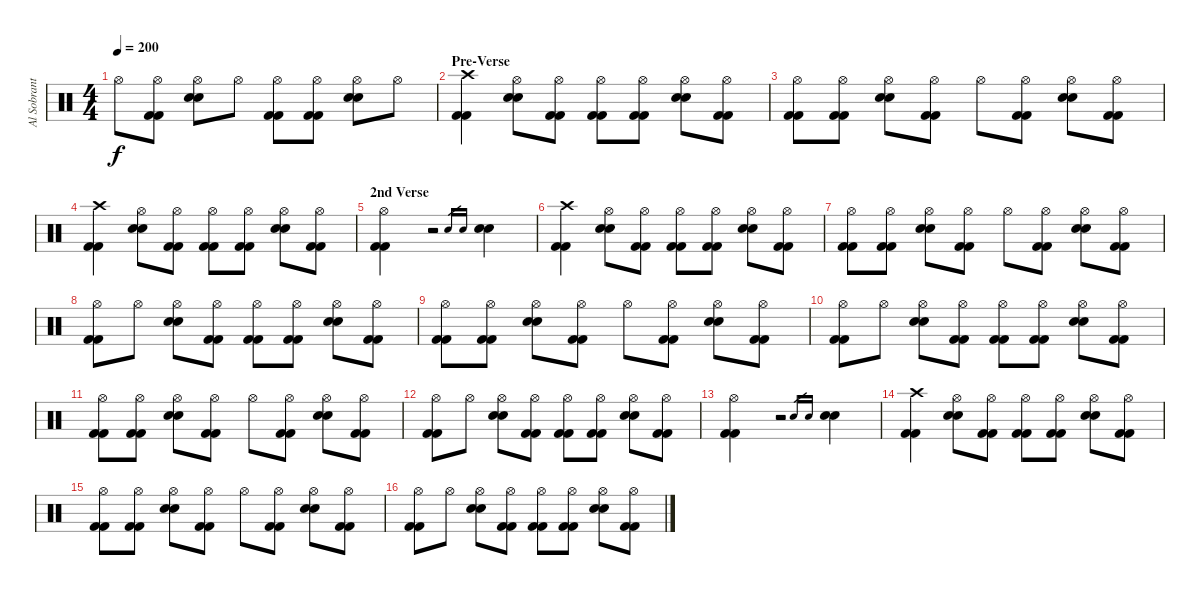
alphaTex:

\track ("Al Sobrante (Drums)" "Al Sobrant") {instrument percussion}
\staff {score}
\articulation defaults
\ts (4 4)
\tempo 200
\clef neutral
\ks c "Hi-Hat (open)".8{dy f}
("Kick (hit) 2" "Kick (hit) 2" "Hi-Hat (open)").8 ("Electric Snare (hit)" "Electric Snare (hit)" "Hi-Hat (open)").8 "Hi-Hat (open)".8 ("Kick (hit) 2" "Kick (hit) 2" "Hi-Hat (open)").8 ("Kick (hit) 2" "Kick (hit) 2" "Hi-Hat (open)").8 ("Electric Snare (hit)" "Electric Snare (hit)" "Hi-Hat (open)").8 "Hi-Hat (open)".8 |
\section ("" "Pre-Verse")
("Kick (hit) 2" "Kick (hit) 2" "Crash high (hit)").4 ("Electric Snare (hit)" "Electric Snare (hit)" "Hi-Hat (open)").8 ("Kick (hit) 2" "Kick (hit) 2" "Hi-Hat (open)").8 ("Kick (hit) 2" "Kick (hit) 2" "Hi-Hat (open)").8 ("Kick (hit) 2" "Kick (hit) 2" "Hi-Hat (open)").8 ("Electric Snare (hit)" "Electric Snare (hit)" "Hi-Hat (open)").8 ("Kick (hit) 2" "Kick (hit) 2" "Hi-Hat (open)").8 |
("Kick (hit) 2" "Kick (hit) 2" "Hi-Hat (open)").8 ("Kick (hit) 2" "Kick (hit) 2" "Hi-Hat (open)").8 ("Electric Snare (hit)" "Electric Snare (hit)" "Hi-Hat (open)").8 ("Kick (hit) 2" "Kick (hit) 2" "Hi-Hat (open)").8 "Hi-Hat (open)".8 ("Kick (hit) 2" "Kick (hit) 2" "Hi-Hat (open)").8 ("Electric Snare (hit)" "Electric Snare (hit)" "Hi-Hat (open)").8 ("Kick (hit) 2" "Kick (hit) 2" "Hi-Hat (open)").8 |
("Kick (hit) 2" "Kick (hit) 2" "Crash high (hit)").4 ("Electric Snare (hit)" "Electric Snare (hit)" "Hi-Hat (open)").8 ("Kick (hit) 2" "Kick (hit) 2" "Hi-Hat (open)").8 ("Kick (hit) 2" "Kick (hit) 2" "Hi-Hat (open)").8 ("Kick (hit) 2" "Kick (hit) 2" "Hi-Hat (open)").8 ("Electric Snare (hit)" "Electric Snare (hit)" "Hi-Hat (open)").8 ("Kick (hit) 2" "Kick (hit) 2" "Hi-Hat (open)").8 |
\section ("" "2nd Verse")
("Kick (hit) 2" "Kick (hit) 2" "Hi-Hat (open)").4 r.2 "Electric Snare (hit)".16{gr} "Snare (hit) 2".16{gr} ("Electric Snare (hit)" "Electric Snare (hit)").4 |
("Kick (hit) 2" "Kick (hit) 2" "Crash high (hit)").4 ("Electric Snare (hit)" "Electric Snare (hit)" "Hi-Hat (open)").8 ("Kick (hit) 2" "Kick (hit) 2" "Hi-Hat (open)").8 ("Kick (hit) 2" "Kick (hit) 2" "Hi-Hat (open)").8 ("Kick (hit) 2" "Kick (hit) 2" "Hi-Hat (open)").8 ("Electric Snare (hit)" "Electric Snare (hit)" "Hi-Hat (open)").8 ("Kick (hit) 2" "Kick (hit) 2" "Hi-Hat (open)").8 |
("Kick (hit) 2" "Kick (hit) 2" "Hi-Hat (open)").8 ("Kick (hit) 2" "Kick (hit) 2" "Hi-Hat (open)").8 ("Electric Snare (hit)" "Electric Snare (hit)" "Hi-Hat (open)").8 ("Kick (hit) 2" "Kick (hit) 2" "Hi-Hat (open)").8 "Hi-Hat (open)".8 ("Kick (hit) 2" "Kick (hit) 2" "Hi-Hat (open)").8 ("Electric Snare (hit)" "Electric Snare (hit)" "Hi-Hat (open)").8 ("Kick (hit) 2" "Kick (hit) 2" "Hi-Hat (open)").8 |
("Kick (hit) 2" "Kick (hit) 2" "Hi-Hat (open)").8 "Hi-Hat (open)".8 ("Electric Snare (hit)" "Electric Snare (hit)" "Hi-Hat (open)").8 ("Kick (hit) 2" "Kick (hit) 2" "Hi-Hat (open)").8 ("Kick (hit) 2" "Kick (hit) 2" "Hi-Hat (open)").8 ("Kick (hit) 2" "Kick (hit) 2" "Hi-Hat (open)").8 ("Electric Snare (hit)" "Electric Snare (hit)" "Hi-Hat (open)").8 ("Kick (hit) 2" "Kick (hit) 2" "Hi-Hat (open)").8 |
("Kick (hit) 2" "Kick (hit) 2" "Hi-Hat (open)").8 ("Kick (hit) 2" "Kick (hit) 2" "Hi-Hat (open)").8 ("Electric Snare (hit)" "Electric Snare (hit)" "Hi-Hat (open)").8 ("Kick (hit) 2" "Kick (hit) 2" "Hi-Hat (open)").8 "Hi-Hat (open)".8 ("Kick (hit) 2" "Kick (hit) 2" "Hi-Hat (open)").8 ("Electric Snare (hit)" "Electric Snare (hit)" "Hi-Hat (open)").8 ("Kick (hit) 2" "Kick (hit) 2" "Hi-Hat (open)").8 |
("Kick (hit) 2" "Kick (hit) 2" "Hi-Hat (open)").8 "Hi-Hat (open)".8 ("Electric Snare (hit)" "Electric Snare (hit)" "Hi-Hat (open)").8 ("Kick (hit) 2" "Kick (hit) 2" "Hi-Hat (open)").8 ("Kick (hit) 2" "Kick (hit) 2" "Hi-Hat (open)").8 ("Kick (hit) 2" "Kick (hit) 2" "Hi-Hat (open)").8 ("Electric Snare (hit)" "Electric Snare (hit)" "Hi-Hat (open)").8 ("Kick (hit) 2" "Kick (hit) 2" "Hi-Hat (open)").8 |
("Kick (hit) 2" "Kick (hit) 2" "Hi-Hat (open)").8 ("Kick (hit) 2" "Kick (hit) 2" "Hi-Hat (open)").8 ("Electric Snare (hit)" "Electric Snare (hit)" "Hi-Hat (open)").8 ("Kick (hit) 2" "Kick (hit) 2" "Hi-Hat (open)").8 "Hi-Hat (open)".8 ("Kick (hit) 2" "Kick (hit) 2" "Hi-Hat (open)").8 ("Electric Snare (hit)" "Electric Snare (hit)" "Hi-Hat (open)").8 ("Kick (hit) 2" "Kick (hit) 2" "Hi-Hat (open)").8 |
("Kick (hit) 2" "Kick (hit) 2" "Hi-Hat (open)").8 "Hi-Hat (open)".8 ("Electric Snare (hit)" "Electric Snare (hit)" "Hi-Hat (open)").8 ("Kick (hit) 2" "Kick (hit) 2" "Hi-Hat (open)").8 ("Kick (hit) 2" "Kick (hit) 2" "Hi-Hat (open)").8 ("Kick (hit) 2" "Kick (hit) 2" "Hi-Hat (open)").8 ("Electric Snare (hit)" "Electric Snare (hit)" "Hi-Hat (open)").8 ("Kick (hit) 2" "Kick (hit) 2" "Hi-Hat (open)").8 |
("Kick (hit) 2" "Kick (hit) 2" "Hi-Hat (open)").4 r.2 "Electric Snare (hit)".16{gr} "Snare (hit) 2".16{gr} ("Electric Snare (hit)" "Electric Snare (hit)").4 |
("Kick (hit) 2" "Kick (hit) 2" "Crash high (hit)").4 ("Electric Snare (hit)" "Electric Snare (hit)" "Hi-Hat (open)").8 ("Kick (hit) 2" "Kick (hit) 2" "Hi-Hat (open)").8 ("Kick (hit) 2" "Kick (hit) 2" "Hi-Hat (open)").8 ("Kick (hit) 2" "Kick (hit) 2" "Hi-Hat (open)").8 ("Electric Snare (hit)" "Electric Snare (hit)" "Hi-Hat (open)").8 ("Kick (hit) 2" "Kick (hit) 2" "Hi-Hat (open)").8 |
("Kick (hit) 2" "Kick (hit) 2" "Hi-Hat (open)").8 ("Kick (hit) 2" "Kick (hit) 2" "Hi-Hat (open)").8 ("Electric Snare (hit)" "Electric Snare (hit)" "Hi-Hat (open)").8 ("Kick (hit) 2" "Kick (hit) 2" "Hi-Hat (open)").8 "Hi-Hat (open)".8 ("Kick (hit) 2" "Kick (hit) 2" "Hi-Hat (open)").8 ("Electric Snare (hit)" "Electric Snare (hit)" "Hi-Hat (open)").8 ("Kick (hit) 2" "Kick (hit) 2" "Hi-Hat (open)").8 |
("Kick (hit) 2" "Kick (hit) 2" "Hi-Hat (open)").8 "Hi-Hat (open)".8 ("Electric Snare (hit)" "Electric Snare (hit)" "Hi-Hat (open)").8 ("Kick (hit) 2" "Kick (hit) 2" "Hi-Hat (open)").8 ("Kick (hit) 2" "Kick (hit) 2" "Hi-Hat (open)").8 ("Kick (hit) 2" "Kick (hit) 2" "Hi-Hat (open)").8 ("Electric Snare (hit)" "Electric Snare (hit)" "Hi-Hat (open)").8 ("Kick (hit) 2" "Kick (hit) 2" "Hi-Hat (open)").8
